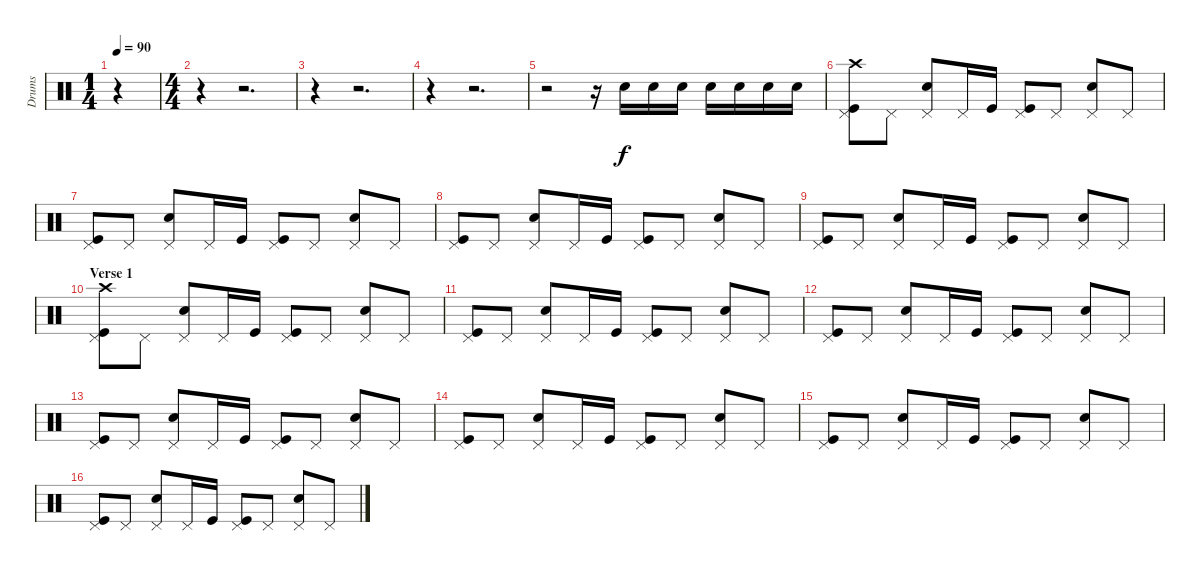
\track ("Drums" "Drums") {instrument percussion}
\staff {score}
\articulation defaults
\ts (1 4)
\tempo 90
\clef neutral
\ks c
r.4{dy f} |
\ts (4 4)
r.4 r.2{d} |
r.4 r.2{d} |
r.4 r.2{d} |
r.2 r.16 "Snare (hit) 2".16 "Snare (hit) 2".16 "Snare (hit) 2".16 "Snare (hit) 2".16 "Snare (hit) 2".16 "Snare (hit) 2".16 "Snare (hit) 2".16 |
("Pedal Hi-Hat (hit)" "Kick (hit)" "Crash high (hit)").8 "Pedal Hi-Hat (hit)".8 ("Pedal Hi-Hat (hit)" "Snare (hit) 2").8 "Pedal Hi-Hat (hit)".16 "Kick (hit)".16 ("Pedal Hi-Hat (hit)" "Kick (hit)").8 "Pedal Hi-Hat (hit)".8 ("Pedal Hi-Hat (hit)" "Snare (hit) 2").8 "Pedal Hi-Hat (hit)".8 |
("Pedal Hi-Hat (hit)" "Kick (hit)").8 "Pedal Hi-Hat (hit)".8 ("Pedal Hi-Hat (hit)" "Snare (hit) 2").8 "Pedal Hi-Hat (hit)".16 "Kick (hit)".16 ("Pedal Hi-Hat (hit)" "Kick (hit)").8 "Pedal Hi-Hat (hit)".8 ("Pedal Hi-Hat (hit)" "Snare (hit) 2").8 "Pedal Hi-Hat (hit)".8 |
("Pedal Hi-Hat (hit)" "Kick (hit)").8 "Pedal Hi-Hat (hit)".8 ("Pedal Hi-Hat (hit)" "Snare (hit) 2").8 "Pedal Hi-Hat (hit)".16 "Kick (hit)".16 ("Pedal Hi-Hat (hit)" "Kick (hit)").8 "Pedal Hi-Hat (hit)".8 ("Pedal Hi-Hat (hit)" "Snare (hit) 2").8 "Pedal Hi-Hat (hit)".8 |
("Pedal Hi-Hat (hit)" "Kick (hit)").8 "Pedal Hi-Hat (hit)".8 ("Pedal Hi-Hat (hit)" "Snare (hit) 2").8 "Pedal Hi-Hat (hit)".16 "Kick (hit)".16 ("Pedal Hi-Hat (hit)" "Kick (hit)").8 "Pedal Hi-Hat (hit)".8 ("Pedal Hi-Hat (hit)" "Snare (hit) 2").8 "Pedal Hi-Hat (hit)".8 |
\section ("" "Verse 1")
("Pedal Hi-Hat (hit)" "Kick (hit)" "Crash high (hit)").8 "Pedal Hi-Hat (hit)".8 ("Pedal Hi-Hat (hit)" "Snare (hit) 2").8 "Pedal Hi-Hat (hit)".16 "Kick (hit)".16 ("Pedal Hi-Hat (hit)" "Kick (hit)").8 "Pedal Hi-Hat (hit)".8 ("Pedal Hi-Hat (hit)" "Snare (hit) 2").8 "Pedal Hi-Hat (hit)".8 |
("Pedal Hi-Hat (hit)" "Kick (hit)").8 "Pedal Hi-Hat (hit)".8 ("Pedal Hi-Hat (hit)" "Snare (hit) 2").8 "Pedal Hi-Hat (hit)".16 "Kick (hit)".16 ("Pedal Hi-Hat (hit)" "Kick (hit)").8 "Pedal Hi-Hat (hit)".8 ("Pedal Hi-Hat (hit)" "Snare (hit) 2").8 "Pedal Hi-Hat (hit)".8 |
("Pedal Hi-Hat (hit)" "Kick (hit)").8 "Pedal Hi-Hat (hit)".8 ("Pedal Hi-Hat (hit)" "Snare (hit) 2").8 "Pedal Hi-Hat (hit)".16 "Kick (hit)".16 ("Pedal Hi-Hat (hit)" "Kick (hit)").8 "Pedal Hi-Hat (hit)".8 ("Pedal Hi-Hat (hit)" "Snare (hit) 2").8 "Pedal Hi-Hat (hit)".8 |
("Pedal Hi-Hat (hit)" "Kick (hit)").8 "Pedal Hi-Hat (hit)".8 ("Pedal Hi-Hat (hit)" "Snare (hit) 2").8 "Pedal Hi-Hat (hit)".16 "Kick (hit)".16 ("Pedal Hi-Hat (hit)" "Kick (hit)").8 "Pedal Hi-Hat (hit)".8 ("Pedal Hi-Hat (hit)" "Snare (hit) 2").8 "Pedal Hi-Hat (hit)".8 |
("Pedal Hi-Hat (hit)" "Kick (hit)").8 "Pedal Hi-Hat (hit)".8 ("Pedal Hi-Hat (hit)" "Snare (hit) 2").8 "Pedal Hi-Hat (hit)".16 "Kick (hit)".16 ("Pedal Hi-Hat (hit)" "Kick (hit)").8 "Pedal Hi-Hat (hit)".8 ("Pedal Hi-Hat (hit)" "Snare (hit) 2").8 "Pedal Hi-Hat (hit)".8 |
("Pedal Hi-Hat (hit)" "Kick (hit)").8 "Pedal Hi-Hat (hit)".8 ("Pedal Hi-Hat (hit)" "Snare (hit) 2").8 "Pedal Hi-Hat (hit)".16 "Kick (hit)".16 ("Pedal Hi-Hat (hit)" "Kick (hit)").8 "Pedal Hi-Hat (hit)".8 ("Pedal Hi-Hat (hit)" "Snare (hit) 2").8 "Pedal Hi-Hat (hit)".8 |
("Pedal Hi-Hat (hit)" "Kick (hit)").8 "Pedal Hi-Hat (hit)".8 ("Pedal Hi-Hat (hit)" "Snare (hit) 2").8 "Pedal Hi-Hat (hit)".16 "Kick (hit)".16 ("Pedal Hi-Hat (hit)" "Kick (hit)").8 "Pedal Hi-Hat (hit)".8 ("Pedal Hi-Hat (hit)" "Snare (hit) 2").8 "Pedal Hi-Hat (hit)".8
